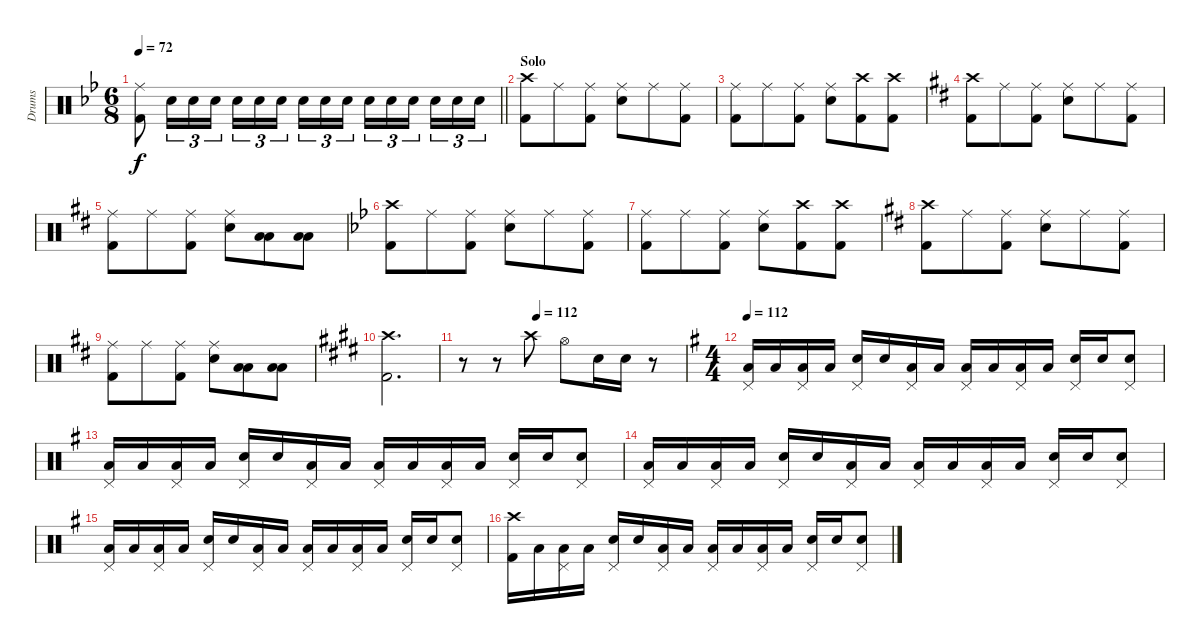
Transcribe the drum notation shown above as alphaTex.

\track ("Drums" "Drums") {instrument percussion}
\staff {score}
\articulation defaults
\ts (6 8)
\tempo 72
\clef neutral
\barLineRight lightlight
\ks bb
("Ride (middle)" "Kick (hit) 2").8{dy f} "Electric Snare (hit)".16{tu (3 2)} "Electric Snare (hit)".16{tu (3 2)} "Electric Snare (hit)".16{tu (3 2) beam splitsecondary} "Electric Snare (hit)".16{tu (3 2)} "Electric Snare (hit)".16{tu (3 2)} "Electric Snare (hit)".16{tu (3 2)} "Electric Snare (hit)".16{tu (3 2)} "Electric Snare (hit)".16{tu (3 2)} "Electric Snare (hit)".16{tu (3 2) beam splitsecondary} "Electric Snare (hit)".16{tu (3 2)} "Electric Snare (hit)".16{tu (3 2)} "Electric Snare (hit)".16{tu (3 2) beam splitsecondary} "Electric Snare (hit)".16{tu (3 2)} "Electric Snare (hit)".16{tu (3 2)} "Electric Snare (hit)".16{tu (3 2)} |
\section ("" "Solo")
("Crash high (hit)" "Kick (hit) 2").8 "Ride (middle)".8 ("Ride (middle)" "Kick (hit) 2").8 ("Ride (middle)" "Electric Snare (hit)").8 "Ride (middle)".8 ("Ride (middle)" "Kick (hit) 2").8 |
("Ride (middle)" "Kick (hit) 2").8 "Ride (middle)".8 ("Ride (middle)" "Kick (hit) 2").8 ("Ride (middle)" "Electric Snare (hit)").8 ("Crash high (hit)" "Kick (hit) 2").8 ("Crash high (hit)" "Kick (hit) 2").8 |
\ks d
("Crash high (hit)" "Kick (hit) 2").8 "Ride (middle)".8 ("Ride (middle)" "Kick (hit) 2").8 ("Ride (middle)" "Electric Snare (hit)").8 "Ride (middle)".8 ("Ride (middle)" "Kick (hit) 2").8 |
("Ride (middle)" "Kick (hit) 2").8 "Ride (middle)".8 ("Ride (middle)" "Kick (hit) 2").8 ("Ride (middle)" "Electric Snare (hit)").8 ("Low Tom (hit)" "Low Floor Tom (hit)").8 ("Low Tom (hit)" "Low Floor Tom (hit)").8 |
\ks bb
("Crash high (hit)" "Kick (hit) 2").8 "Ride (middle)".8 ("Ride (middle)" "Kick (hit) 2").8 ("Ride (middle)" "Electric Snare (hit)").8 "Ride (middle)".8 ("Ride (middle)" "Kick (hit) 2").8 |
("Ride (middle)" "Kick (hit) 2").8 "Ride (middle)".8 ("Ride (middle)" "Kick (hit) 2").8 ("Ride (middle)" "Electric Snare (hit)").8 ("Crash high (hit)" "Kick (hit) 2").8 ("Crash high (hit)" "Kick (hit) 2").8 |
\ks d
("Crash high (hit)" "Kick (hit) 2").8 "Ride (middle)".8 ("Ride (middle)" "Kick (hit) 2").8 ("Ride (middle)" "Electric Snare (hit)").8 "Ride (middle)".8 ("Ride (middle)" "Kick (hit) 2").8 |
("Ride (middle)" "Kick (hit) 2").8 "Ride (middle)".8 ("Ride (middle)" "Kick (hit) 2").8 ("Ride (middle)" "Electric Snare (hit)").8 ("Low Tom (hit)" "Low Floor Tom (hit)").8 ("Low Tom (hit)" "Low Floor Tom (hit)").8 |
\ks e
("Crash high (hit)" "Kick (hit) 2").2{d} |
\tempo (112 0.3333333333333333)
\ks c#minor
r.8 r.8 "Crash high (hit)".8 "Hi-Hat (open)".8 "Electric Snare (hit)".16 "Electric Snare (hit)".16 r.8 |
\ts (4 4)
\tempo 112
\ks g
("Pedal Hi-Hat (hit)" "Low Floor Tom (hit)").16 "Low Floor Tom (hit)".16 ("Pedal Hi-Hat (hit)" "Low Floor Tom (hit)").16 "Low Floor Tom (hit)".16 ("Pedal Hi-Hat (hit)" "Electric Snare (hit)").16 "Electric Snare (hit)".16 ("Pedal Hi-Hat (hit)" "Low Floor Tom (hit)").16 "Low Floor Tom (hit)".16 ("Pedal Hi-Hat (hit)" "Low Floor Tom (hit)").16 "Low Floor Tom (hit)".16 ("Pedal Hi-Hat (hit)" "Low Floor Tom (hit)").16 "Low Floor Tom (hit)".16 ("Pedal Hi-Hat (hit)" "Electric Snare (hit)").16 "Electric Snare (hit)".16 ("Pedal Hi-Hat (hit)" "Electric Snare (hit)").8 |
("Pedal Hi-Hat (hit)" "Low Floor Tom (hit)").16 "Low Floor Tom (hit)".16 ("Pedal Hi-Hat (hit)" "Low Floor Tom (hit)").16 "Low Floor Tom (hit)".16 ("Pedal Hi-Hat (hit)" "Electric Snare (hit)").16 "Electric Snare (hit)".16 ("Pedal Hi-Hat (hit)" "Low Floor Tom (hit)").16 "Low Floor Tom (hit)".16 ("Pedal Hi-Hat (hit)" "Low Floor Tom (hit)").16 "Low Floor Tom (hit)".16 ("Pedal Hi-Hat (hit)" "Low Floor Tom (hit)").16 "Low Floor Tom (hit)".16 ("Pedal Hi-Hat (hit)" "Electric Snare (hit)").16 "Electric Snare (hit)".16 ("Pedal Hi-Hat (hit)" "Electric Snare (hit)").8 |
("Pedal Hi-Hat (hit)" "Low Floor Tom (hit)").16 "Low Floor Tom (hit)".16 ("Pedal Hi-Hat (hit)" "Low Floor Tom (hit)").16 "Low Floor Tom (hit)".16 ("Pedal Hi-Hat (hit)" "Electric Snare (hit)").16 "Electric Snare (hit)".16 ("Pedal Hi-Hat (hit)" "Low Floor Tom (hit)").16 "Low Floor Tom (hit)".16 ("Pedal Hi-Hat (hit)" "Low Floor Tom (hit)").16 "Low Floor Tom (hit)".16 ("Pedal Hi-Hat (hit)" "Low Floor Tom (hit)").16 "Low Floor Tom (hit)".16 ("Pedal Hi-Hat (hit)" "Electric Snare (hit)").16 "Electric Snare (hit)".16 ("Pedal Hi-Hat (hit)" "Electric Snare (hit)").8 |
("Pedal Hi-Hat (hit)" "Low Floor Tom (hit)").16 "Low Floor Tom (hit)".16 ("Pedal Hi-Hat (hit)" "Low Floor Tom (hit)").16 "Low Floor Tom (hit)".16 ("Pedal Hi-Hat (hit)" "Electric Snare (hit)").16 "Electric Snare (hit)".16 ("Pedal Hi-Hat (hit)" "Low Floor Tom (hit)").16 "Low Floor Tom (hit)".16 ("Pedal Hi-Hat (hit)" "Low Floor Tom (hit)").16 "Low Floor Tom (hit)".16 ("Pedal Hi-Hat (hit)" "Low Floor Tom (hit)").16 "Low Floor Tom (hit)".16 ("Pedal Hi-Hat (hit)" "Electric Snare (hit)").16 "Electric Snare (hit)".16 ("Pedal Hi-Hat (hit)" "Electric Snare (hit)").8 |
("Crash high (hit)" "Kick (hit) 2").16 "Low Floor Tom (hit)".16 ("Pedal Hi-Hat (hit)" "Low Floor Tom (hit)").16 "Low Floor Tom (hit)".16 ("Pedal Hi-Hat (hit)" "Electric Snare (hit)").16 "Electric Snare (hit)".16 ("Pedal Hi-Hat (hit)" "Low Floor Tom (hit)").16 "Low Floor Tom (hit)".16 ("Pedal Hi-Hat (hit)" "Low Floor Tom (hit)").16 "Low Floor Tom (hit)".16 ("Pedal Hi-Hat (hit)" "Low Floor Tom (hit)").16 "Low Floor Tom (hit)".16 ("Pedal Hi-Hat (hit)" "Electric Snare (hit)").16 "Electric Snare (hit)".16 ("Pedal Hi-Hat (hit)" "Electric Snare (hit)").8
